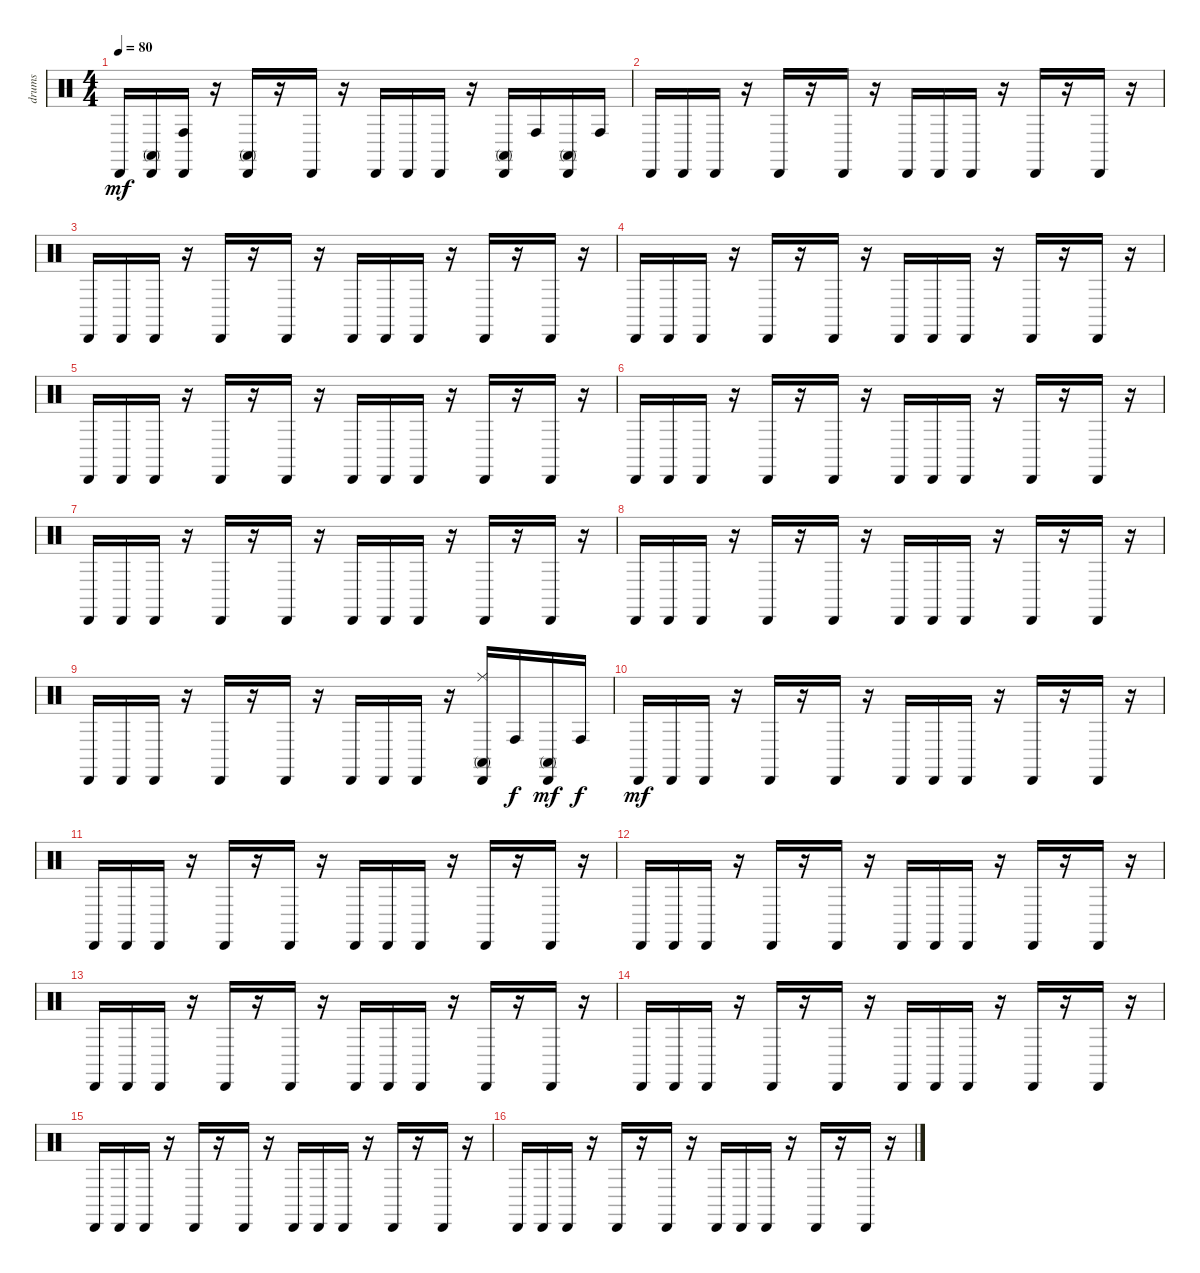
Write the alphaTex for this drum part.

\track ("drums" "drums") {instrument percussion}
\staff {score}
\articulation defaults
\ts (4 4)
\tempo 80
\clef neutral
\ks c "Cabasa (hit)".16{dy mf}
("Conga high (mute)" "Cabasa (hit)").16 ("Conga high (hit)" "Cabasa (hit)").16 r.16 ("Conga high (mute)" "Cabasa (hit)").16 r.16 "Cabasa (hit)".16 r.16 "Cabasa (hit)".16 "Cabasa (hit)".16 "Cabasa (hit)".16 r.16 ("Conga high (mute)" "Cabasa (hit)").16 "Conga high (hit)".16 ("Conga high (mute)" "Cabasa (hit)").16 "Conga high (hit)".16 |
"Cabasa (hit)".16 "Cabasa (hit)".16 "Cabasa (hit)".16 r.16 "Cabasa (hit)".16 r.16 "Cabasa (hit)".16 r.16 "Cabasa (hit)".16 "Cabasa (hit)".16 "Cabasa (hit)".16 r.16 "Cabasa (hit)".16 r.16 "Cabasa (hit)".16 r.16 |
"Cabasa (hit)".16 "Cabasa (hit)".16 "Cabasa (hit)".16 r.16 "Cabasa (hit)".16 r.16 "Cabasa (hit)".16 r.16 "Cabasa (hit)".16 "Cabasa (hit)".16 "Cabasa (hit)".16 r.16 "Cabasa (hit)".16 r.16 "Cabasa (hit)".16 r.16 |
"Cabasa (hit)".16 "Cabasa (hit)".16 "Cabasa (hit)".16 r.16 "Cabasa (hit)".16 r.16 "Cabasa (hit)".16 r.16 "Cabasa (hit)".16 "Cabasa (hit)".16 "Cabasa (hit)".16 r.16 "Cabasa (hit)".16 r.16 "Cabasa (hit)".16 r.16 |
"Cabasa (hit)".16 "Cabasa (hit)".16 "Cabasa (hit)".16 r.16 "Cabasa (hit)".16 r.16 "Cabasa (hit)".16 r.16 "Cabasa (hit)".16 "Cabasa (hit)".16 "Cabasa (hit)".16 r.16 "Cabasa (hit)".16 r.16 "Cabasa (hit)".16 r.16 |
"Cabasa (hit)".16 "Cabasa (hit)".16 "Cabasa (hit)".16 r.16 "Cabasa (hit)".16 r.16 "Cabasa (hit)".16 r.16 "Cabasa (hit)".16 "Cabasa (hit)".16 "Cabasa (hit)".16 r.16 "Cabasa (hit)".16 r.16 "Cabasa (hit)".16 r.16 |
"Cabasa (hit)".16 "Cabasa (hit)".16 "Cabasa (hit)".16 r.16 "Cabasa (hit)".16 r.16 "Cabasa (hit)".16 r.16 "Cabasa (hit)".16 "Cabasa (hit)".16 "Cabasa (hit)".16 r.16 "Cabasa (hit)".16 r.16 "Cabasa (hit)".16 r.16 |
"Cabasa (hit)".16 "Cabasa (hit)".16 "Cabasa (hit)".16 r.16 "Cabasa (hit)".16 r.16 "Cabasa (hit)".16 r.16 "Cabasa (hit)".16 "Cabasa (hit)".16 "Cabasa (hit)".16 r.16 "Cabasa (hit)".16 r.16 "Cabasa (hit)".16 r.16 |
"Cabasa (hit)".16 "Cabasa (hit)".16 "Cabasa (hit)".16 r.16 "Cabasa (hit)".16 r.16 "Cabasa (hit)".16 r.16 "Cabasa (hit)".16 "Cabasa (hit)".16 "Cabasa (hit)".16 r.16 ("Ride (middle)" "Conga high (mute)" "Cabasa (hit)").16 "Conga high (hit)".16{dy f} ("Conga high (mute)" "Cabasa (hit)").16{dy mf} "Conga high (hit)".16{dy f} |
"Cabasa (hit)".16{dy mf} "Cabasa (hit)".16 "Cabasa (hit)".16 r.16 "Cabasa (hit)".16 r.16 "Cabasa (hit)".16 r.16 "Cabasa (hit)".16 "Cabasa (hit)".16 "Cabasa (hit)".16 r.16 "Cabasa (hit)".16 r.16 "Cabasa (hit)".16 r.16 |
"Cabasa (hit)".16 "Cabasa (hit)".16 "Cabasa (hit)".16 r.16 "Cabasa (hit)".16 r.16 "Cabasa (hit)".16 r.16 "Cabasa (hit)".16 "Cabasa (hit)".16 "Cabasa (hit)".16 r.16 "Cabasa (hit)".16 r.16 "Cabasa (hit)".16 r.16 |
"Cabasa (hit)".16 "Cabasa (hit)".16 "Cabasa (hit)".16 r.16 "Cabasa (hit)".16 r.16 "Cabasa (hit)".16 r.16 "Cabasa (hit)".16 "Cabasa (hit)".16 "Cabasa (hit)".16 r.16 "Cabasa (hit)".16 r.16 "Cabasa (hit)".16 r.16 |
"Cabasa (hit)".16 "Cabasa (hit)".16 "Cabasa (hit)".16 r.16 "Cabasa (hit)".16 r.16 "Cabasa (hit)".16 r.16 "Cabasa (hit)".16 "Cabasa (hit)".16 "Cabasa (hit)".16 r.16 "Cabasa (hit)".16 r.16 "Cabasa (hit)".16 r.16 |
"Cabasa (hit)".16 "Cabasa (hit)".16 "Cabasa (hit)".16 r.16 "Cabasa (hit)".16 r.16 "Cabasa (hit)".16 r.16 "Cabasa (hit)".16 "Cabasa (hit)".16 "Cabasa (hit)".16 r.16 "Cabasa (hit)".16 r.16 "Cabasa (hit)".16 r.16 |
"Cabasa (hit)".16 "Cabasa (hit)".16 "Cabasa (hit)".16 r.16 "Cabasa (hit)".16 r.16 "Cabasa (hit)".16 r.16 "Cabasa (hit)".16 "Cabasa (hit)".16 "Cabasa (hit)".16 r.16 "Cabasa (hit)".16 r.16 "Cabasa (hit)".16 r.16 |
"Cabasa (hit)".16 "Cabasa (hit)".16 "Cabasa (hit)".16 r.16 "Cabasa (hit)".16 r.16 "Cabasa (hit)".16 r.16 "Cabasa (hit)".16 "Cabasa (hit)".16 "Cabasa (hit)".16 r.16 "Cabasa (hit)".16 r.16 "Cabasa (hit)".16 r.16
